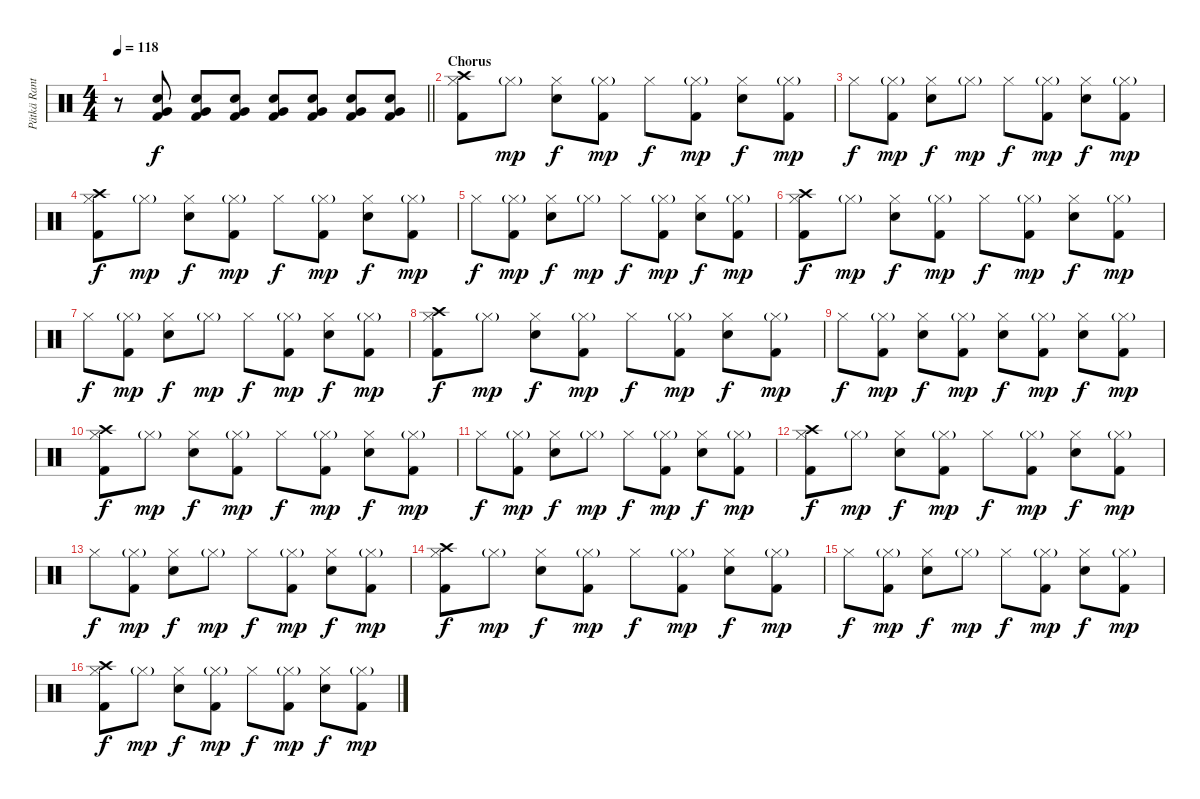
\track ("Pätkä Rantala (Drums)" "Pätkä Rant") {instrument percussion}
\staff {score}
\articulation defaults
\ts (4 4)
\tempo 118
\clef neutral
\barLineRight lightlight
\ks c
r.8{dy mp} ("Very Low Tom (hit)" "Snare (hit) 2" "Kick (hit) 2").8{dy f} ("Very Low Tom (hit)" "Snare (hit) 2" "Kick (hit) 2").8 ("Very Low Tom (hit)" "Snare (hit) 2" "Kick (hit) 2").8 ("Very Low Tom (hit)" "Snare (hit) 2" "Kick (hit) 2").8 ("Very Low Tom (hit)" "Snare (hit) 2" "Kick (hit) 2").8 ("Very Low Tom (hit)" "Snare (hit) 2" "Kick (hit) 2").8 ("Very Low Tom (hit)" "Snare (hit) 2" "Kick (hit) 2").8 |
\section ("" "Chorus")
("Crash high (hit)" "Hi-Hat (closed)" "Kick (hit) 2").8 "Hi-Hat (closed)"{g}.8{dy mp} ("Hi-Hat (closed)" "Snare (hit) 2").8{dy f} ("Hi-Hat (closed)"{g} "Kick (hit) 2").8{dy mp} "Hi-Hat (closed)".8{dy f} ("Hi-Hat (closed)"{g} "Kick (hit) 2").8{dy mp} ("Hi-Hat (closed)" "Snare (hit) 2").8{dy f} ("Hi-Hat (closed)"{g} "Kick (hit) 2").8{dy mp} |
"Hi-Hat (closed)".8{dy f} ("Hi-Hat (closed)"{g} "Kick (hit) 2").8{dy mp} ("Hi-Hat (closed)" "Snare (hit) 2").8{dy f} "Hi-Hat (closed)"{g}.8{dy mp} "Hi-Hat (closed)".8{dy f} ("Hi-Hat (closed)"{g} "Kick (hit) 2").8{dy mp} ("Hi-Hat (closed)" "Snare (hit) 2").8{dy f} ("Hi-Hat (closed)"{g} "Kick (hit) 2").8{dy mp} |
("Crash high (hit)" "Hi-Hat (closed)" "Kick (hit) 2").8{dy f} "Hi-Hat (closed)"{g}.8{dy mp} ("Hi-Hat (closed)" "Snare (hit) 2").8{dy f} ("Hi-Hat (closed)"{g} "Kick (hit) 2").8{dy mp} "Hi-Hat (closed)".8{dy f} ("Hi-Hat (closed)"{g} "Kick (hit) 2").8{dy mp} ("Hi-Hat (closed)" "Snare (hit) 2").8{dy f} ("Hi-Hat (closed)"{g} "Kick (hit) 2").8{dy mp} |
"Hi-Hat (closed)".8{dy f} ("Hi-Hat (closed)"{g} "Kick (hit) 2").8{dy mp} ("Hi-Hat (closed)" "Snare (hit) 2").8{dy f} "Hi-Hat (closed)"{g}.8{dy mp} "Hi-Hat (closed)".8{dy f} ("Hi-Hat (closed)"{g} "Kick (hit) 2").8{dy mp} ("Hi-Hat (closed)" "Snare (hit) 2").8{dy f} ("Hi-Hat (closed)"{g} "Kick (hit) 2").8{dy mp} |
("Crash high (hit)" "Hi-Hat (closed)" "Kick (hit) 2").8{dy f} "Hi-Hat (closed)"{g}.8{dy mp} ("Hi-Hat (closed)" "Snare (hit) 2").8{dy f} ("Hi-Hat (closed)"{g} "Kick (hit) 2").8{dy mp} "Hi-Hat (closed)".8{dy f} ("Hi-Hat (closed)"{g} "Kick (hit) 2").8{dy mp} ("Hi-Hat (closed)" "Snare (hit) 2").8{dy f} ("Hi-Hat (closed)"{g} "Kick (hit) 2").8{dy mp} |
"Hi-Hat (closed)".8{dy f} ("Hi-Hat (closed)"{g} "Kick (hit) 2").8{dy mp} ("Hi-Hat (closed)" "Snare (hit) 2").8{dy f} "Hi-Hat (closed)"{g}.8{dy mp} "Hi-Hat (closed)".8{dy f} ("Hi-Hat (closed)"{g} "Kick (hit) 2").8{dy mp} ("Hi-Hat (closed)" "Snare (hit) 2").8{dy f} ("Hi-Hat (closed)"{g} "Kick (hit) 2").8{dy mp} |
("Crash high (hit)" "Hi-Hat (closed)" "Kick (hit) 2").8{dy f} "Hi-Hat (closed)"{g}.8{dy mp} ("Hi-Hat (closed)" "Snare (hit) 2").8{dy f} ("Hi-Hat (closed)"{g} "Kick (hit) 2").8{dy mp} "Hi-Hat (closed)".8{dy f} ("Hi-Hat (closed)"{g} "Kick (hit) 2").8{dy mp} ("Hi-Hat (closed)" "Snare (hit) 2").8{dy f} ("Hi-Hat (closed)"{g} "Kick (hit) 2").8{dy mp} |
"Hi-Hat (closed)".8{dy f} ("Hi-Hat (closed)"{g} "Kick (hit) 2").8{dy mp} ("Hi-Hat (closed)" "Snare (hit) 2").8{dy f} ("Hi-Hat (closed)"{g} "Kick (hit) 2").8{dy mp} ("Hi-Hat (closed)" "Snare (hit) 2").8{dy f} ("Hi-Hat (closed)"{g} "Kick (hit) 2").8{dy mp} ("Hi-Hat (closed)" "Snare (hit) 2").8{dy f} ("Hi-Hat (closed)"{g} "Kick (hit) 2").8{dy mp} |
("Crash high (hit)" "Hi-Hat (closed)" "Kick (hit) 2").8{dy f} "Hi-Hat (closed)"{g}.8{dy mp} ("Hi-Hat (closed)" "Snare (hit) 2").8{dy f} ("Hi-Hat (closed)"{g} "Kick (hit) 2").8{dy mp} "Hi-Hat (closed)".8{dy f} ("Hi-Hat (closed)"{g} "Kick (hit) 2").8{dy mp} ("Hi-Hat (closed)" "Snare (hit) 2").8{dy f} ("Hi-Hat (closed)"{g} "Kick (hit) 2").8{dy mp} |
"Hi-Hat (closed)".8{dy f} ("Hi-Hat (closed)"{g} "Kick (hit) 2").8{dy mp} ("Hi-Hat (closed)" "Snare (hit) 2").8{dy f} "Hi-Hat (closed)"{g}.8{dy mp} "Hi-Hat (closed)".8{dy f} ("Hi-Hat (closed)"{g} "Kick (hit) 2").8{dy mp} ("Hi-Hat (closed)" "Snare (hit) 2").8{dy f} ("Hi-Hat (closed)"{g} "Kick (hit) 2").8{dy mp} |
("Crash high (hit)" "Hi-Hat (closed)" "Kick (hit) 2").8{dy f} "Hi-Hat (closed)"{g}.8{dy mp} ("Hi-Hat (closed)" "Snare (hit) 2").8{dy f} ("Hi-Hat (closed)"{g} "Kick (hit) 2").8{dy mp} "Hi-Hat (closed)".8{dy f} ("Hi-Hat (closed)"{g} "Kick (hit) 2").8{dy mp} ("Hi-Hat (closed)" "Snare (hit) 2").8{dy f} ("Hi-Hat (closed)"{g} "Kick (hit) 2").8{dy mp} |
"Hi-Hat (closed)".8{dy f} ("Hi-Hat (closed)"{g} "Kick (hit) 2").8{dy mp} ("Hi-Hat (closed)" "Snare (hit) 2").8{dy f} "Hi-Hat (closed)"{g}.8{dy mp} "Hi-Hat (closed)".8{dy f} ("Hi-Hat (closed)"{g} "Kick (hit) 2").8{dy mp} ("Hi-Hat (closed)" "Snare (hit) 2").8{dy f} ("Hi-Hat (closed)"{g} "Kick (hit) 2").8{dy mp} |
("Crash high (hit)" "Hi-Hat (closed)" "Kick (hit) 2").8{dy f} "Hi-Hat (closed)"{g}.8{dy mp} ("Hi-Hat (closed)" "Snare (hit) 2").8{dy f} ("Hi-Hat (closed)"{g} "Kick (hit) 2").8{dy mp} "Hi-Hat (closed)".8{dy f} ("Hi-Hat (closed)"{g} "Kick (hit) 2").8{dy mp} ("Hi-Hat (closed)" "Snare (hit) 2").8{dy f} ("Hi-Hat (closed)"{g} "Kick (hit) 2").8{dy mp} |
"Hi-Hat (closed)".8{dy f} ("Hi-Hat (closed)"{g} "Kick (hit) 2").8{dy mp} ("Hi-Hat (closed)" "Snare (hit) 2").8{dy f} "Hi-Hat (closed)"{g}.8{dy mp} "Hi-Hat (closed)".8{dy f} ("Hi-Hat (closed)"{g} "Kick (hit) 2").8{dy mp} ("Hi-Hat (closed)" "Snare (hit) 2").8{dy f} ("Hi-Hat (closed)"{g} "Kick (hit) 2").8{dy mp} |
("Crash high (hit)" "Hi-Hat (closed)" "Kick (hit) 2").8{dy f} "Hi-Hat (closed)"{g}.8{dy mp} ("Hi-Hat (closed)" "Snare (hit) 2").8{dy f} ("Hi-Hat (closed)"{g} "Kick (hit) 2").8{dy mp} "Hi-Hat (closed)".8{dy f} ("Hi-Hat (closed)"{g} "Kick (hit) 2").8{dy mp} ("Hi-Hat (closed)" "Snare (hit) 2").8{dy f} ("Hi-Hat (closed)"{g} "Kick (hit) 2").8{dy mp}
